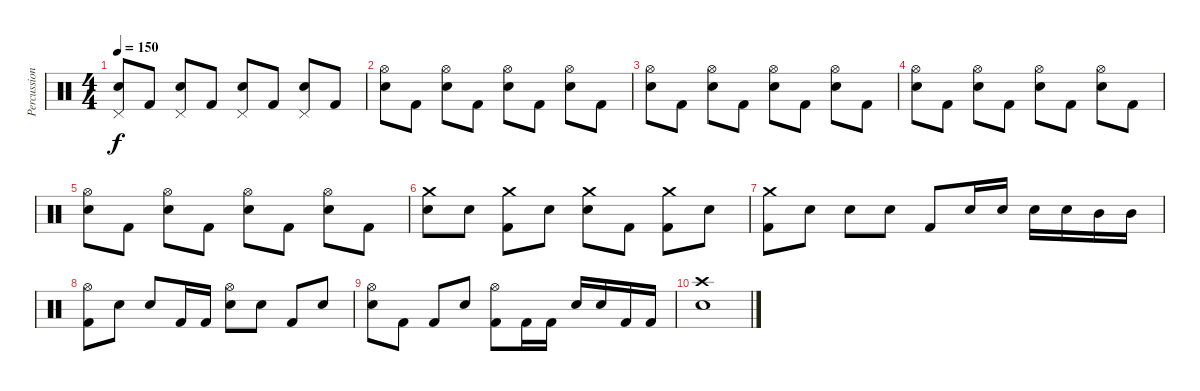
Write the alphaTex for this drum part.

\track ("Percussion" "Percussion") {instrument percussion}
\staff {score}
\articulation defaults
\ts (4 4)
\tempo 150
\clef neutral
\ks c
("Pedal Hi-Hat (hit)" "Electric Snare (hit)").8{dy f} "Kick (hit) 2".8 ("Pedal Hi-Hat (hit)" "Electric Snare (hit)").8 "Kick (hit) 2".8 ("Pedal Hi-Hat (hit)" "Electric Snare (hit)").8 "Kick (hit) 2".8 ("Pedal Hi-Hat (hit)" "Electric Snare (hit)").8 "Kick (hit) 2".8 |
("Hi-Hat (open)" "Electric Snare (hit)").8 "Kick (hit) 2".8 ("Hi-Hat (open)" "Electric Snare (hit)").8 "Kick (hit) 2".8 ("Hi-Hat (open)" "Electric Snare (hit)").8 "Kick (hit) 2".8 ("Hi-Hat (open)" "Electric Snare (hit)").8 "Kick (hit) 2".8 |
("Hi-Hat (open)" "Electric Snare (hit)").8 "Kick (hit) 2".8 ("Hi-Hat (open)" "Electric Snare (hit)").8 "Kick (hit) 2".8 ("Hi-Hat (open)" "Electric Snare (hit)").8 "Kick (hit) 2".8 ("Hi-Hat (open)" "Electric Snare (hit)").8 "Kick (hit) 2".8 |
("Hi-Hat (open)" "Electric Snare (hit)").8 "Kick (hit) 2".8 ("Hi-Hat (open)" "Electric Snare (hit)").8 "Kick (hit) 2".8 ("Hi-Hat (open)" "Electric Snare (hit)").8 "Kick (hit) 2".8 ("Hi-Hat (open)" "Electric Snare (hit)").8 "Kick (hit) 2".8 |
("Hi-Hat (open)" "Electric Snare (hit)").8 "Kick (hit) 2".8 ("Hi-Hat (open)" "Electric Snare (hit)").8 "Kick (hit) 2".8 ("Hi-Hat (open)" "Electric Snare (hit)").8 "Kick (hit) 2".8 ("Hi-Hat (open)" "Electric Snare (hit)").8 "Kick (hit) 2".8 |
("Crash medium (hit)" "Electric Snare (hit)").8 "Electric Snare (hit)".8 ("Crash medium (hit)" "Kick (hit) 2").8 "Electric Snare (hit)".8 ("Crash medium (hit)" "Electric Snare (hit)").8 "Kick (hit) 2".8 ("Crash medium (hit)" "Kick (hit) 2").8 "Electric Snare (hit)".8 |
("Crash medium (hit)" "Kick (hit) 2").8 "Electric Snare (hit)".8 "Electric Snare (hit)".8 "Electric Snare (hit)".8 "Kick (hit) 2".8 "Electric Snare (hit)".16 "Electric Snare (hit)".16 "Electric Snare (hit)".16 "Electric Snare (hit)".16 "Mid Tom (hit)".16 "Mid Tom (hit)".16 |
("Hi-Hat (open)" "Kick (hit) 2").8 "Electric Snare (hit)".8 "Electric Snare (hit)".8 "Kick (hit) 2".16 "Kick (hit) 2".16 ("Hi-Hat (open)" "Electric Snare (hit)").8 "Electric Snare (hit)".8 "Kick (hit) 2".8 "Electric Snare (hit)".8 |
("Hi-Hat (open)" "Electric Snare (hit)").8 "Kick (hit) 2".8 "Kick (hit) 2".8 "Electric Snare (hit)".8 ("Hi-Hat (open)" "Kick (hit) 2").8 "Kick (hit) 2".16 "Kick (hit) 2".16 "Electric Snare (hit)".16 "Electric Snare (hit)".16 "Kick (hit) 2".16 "Kick (hit) 2".16 |
("Crash high (hit)" "Electric Snare (hit)").1
